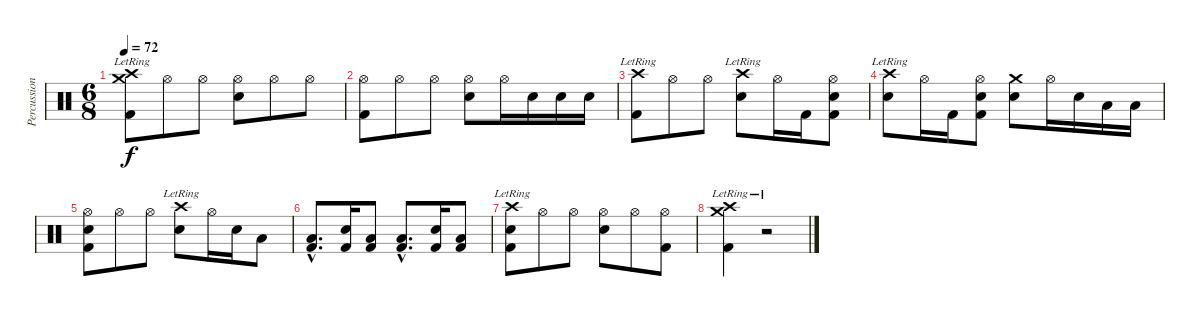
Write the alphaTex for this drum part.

\track ("Percussioni" "Percussion") {instrument percussion}
\staff {score}
\articulation defaults
\ts (6 8)
\tempo 72
\clef neutral
\ks c
("Crash high (hit)"{lr} "Crash medium (hit)"{lr} "Kick (hit) 2").8{dy f} "Hi-Hat (open)".8 "Hi-Hat (open)".8 ("Hi-Hat (open)" "Electric Snare (hit)").8 "Hi-Hat (open)".8 "Hi-Hat (open)".8 |
("Hi-Hat (open)" "Kick (hit) 2").8 "Hi-Hat (open)".8 "Hi-Hat (open)".8 ("Hi-Hat (open)" "Electric Snare (hit)").8 "Hi-Hat (open)".16 "Electric Snare (hit)".16 "Electric Snare (hit)".16 "Electric Snare (hit)".16 |
("Crash high (hit)"{lr} "Kick (hit) 2").8 "Hi-Hat (open)".8 "Hi-Hat (open)".8 ("Electric Snare (hit)" "Crash high (hit)"{lr}).8 "Hi-Hat (open)".16 "Kick (hit) 2".16 ("Hi-Hat (open)" "Electric Snare (hit)" "Kick (hit) 2").8 |
("Electric Snare (hit)" "Crash high (hit)"{lr}).8 "Hi-Hat (open)".16 "Kick (hit) 2".16 ("Hi-Hat (open)" "Electric Snare (hit)" "Kick (hit) 2").8 ("Crash medium (hit)" "Electric Snare (hit)").8 "Hi-Hat (open)".16 "Electric Snare (hit)".16 "Low Tom (hit)".16 "Low Tom (hit)".16 |
("Hi-Hat (open)" "Electric Snare (hit)" "Kick (hit) 2").8 "Hi-Hat (open)".8 "Hi-Hat (open)".8 ("Electric Snare (hit)" "Crash high (hit)"{lr}).8 "Hi-Hat (open)".16 "Electric Snare (hit)".16 "Low Tom (hit)".8 |
("Low Tom (hit)"{hac} "Kick (hit) 2"{hac}).8{d} ("Electric Snare (hit)" "Kick (hit) 2").16 ("Low Tom (hit)" "Kick (hit) 2").8 ("Low Tom (hit)"{hac} "Kick (hit) 2"{hac}).8{d} ("Electric Snare (hit)" "Kick (hit) 2").16 ("Low Tom (hit)" "Kick (hit) 2").8 |
("Electric Snare (hit)" "Crash high (hit)"{lr} "Kick (hit) 2").8 "Hi-Hat (open)".8 "Hi-Hat (open)".8 ("Hi-Hat (open)" "Electric Snare (hit)").8 "Hi-Hat (open)".8 ("Hi-Hat (open)" "Kick (hit) 2").8 |
("Crash high (hit)"{lr} "Crash medium (hit)"{lr} "Kick (hit) 2").4 r.2
